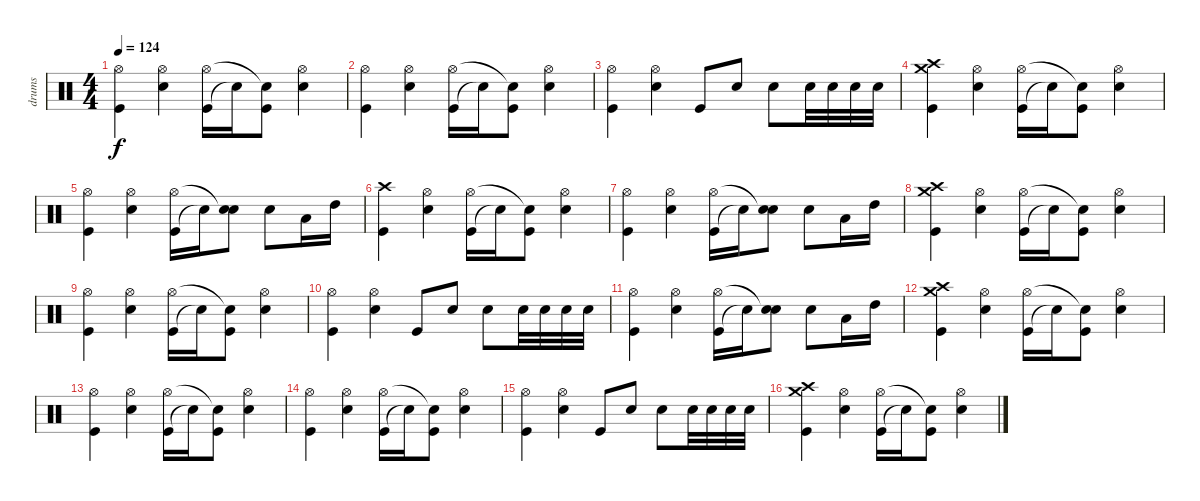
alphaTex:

\track ("drums" "drums") {instrument percussion}
\staff {score}
\articulation defaults
\ts (4 4)
\tempo 124
\clef neutral
\ks c
("Kick (hit)" "Hi-Hat (open)").4{dy f} ("Snare (hit) 2" "Hi-Hat (open)").4 ("Kick (hit)" "Hi-Hat (open)").16 "Snare (hit)"{t}.16 ("Kick (hit)" "Snare (hit)"{t}).8 ("Snare (hit) 2" "Hi-Hat (open)").4 |
("Kick (hit)" "Hi-Hat (open)").4 ("Snare (hit) 2" "Hi-Hat (open)").4 ("Kick (hit)" "Hi-Hat (open)").16 "Snare (hit)"{t}.16 ("Kick (hit)" "Snare (hit)"{t}).8 ("Snare (hit) 2" "Hi-Hat (open)").4 |
("Kick (hit)" "Hi-Hat (open)").4 ("Snare (hit) 2" "Hi-Hat (open)").4 "Kick (hit)".8 "Snare (hit) 2".8 "Snare (hit) 2".8 "Snare (hit) 2".32 "Snare (hit) 2".32 "Snare (hit) 2".32 "Snare (hit) 2".32 |
("Kick (hit)" "Crash medium (hit)" "Crash high (hit)").4 ("Snare (hit) 2" "Hi-Hat (open)").4 ("Kick (hit)" "Hi-Hat (open)").16 "Snare (hit)"{t}.16 ("Kick (hit)" "Snare (hit)"{t}).8 ("Snare (hit) 2" "Hi-Hat (open)").4 |
("Kick (hit)" "Hi-Hat (open)").4 ("Snare (hit) 2" "Hi-Hat (open)").4 ("Kick (hit)" "Hi-Hat (open)").16 "Snare (hit)"{t}.16 ("Snare (hit) 2" "Snare (hit)"{t}).8 "Snare (hit) 2".8 "Low Tom (hit)".16 "High Tom (hit)".16 |
("Kick (hit)" "Crash high (hit)").4 ("Snare (hit) 2" "Hi-Hat (open)").4 ("Kick (hit)" "Hi-Hat (open)").16 "Snare (hit)"{t}.16 ("Kick (hit)" "Snare (hit)"{t}).8 ("Snare (hit) 2" "Hi-Hat (open)").4 |
("Kick (hit)" "Hi-Hat (open)").4 ("Snare (hit) 2" "Hi-Hat (open)").4 ("Kick (hit)" "Hi-Hat (open)").16 "Snare (hit)"{t}.16 ("Snare (hit) 2" "Snare (hit)"{t}).8 "Snare (hit) 2".8 "Low Tom (hit)".16 "High Tom (hit)".16 |
("Kick (hit)" "Crash medium (hit)" "Crash high (hit)").4 ("Snare (hit) 2" "Hi-Hat (open)").4 ("Kick (hit)" "Hi-Hat (open)").16 "Snare (hit)"{t}.16 ("Kick (hit)" "Snare (hit)"{t}).8 ("Snare (hit) 2" "Hi-Hat (open)").4 |
("Kick (hit)" "Hi-Hat (open)").4 ("Snare (hit) 2" "Hi-Hat (open)").4 ("Kick (hit)" "Hi-Hat (open)").16 "Snare (hit)"{t}.16 ("Kick (hit)" "Snare (hit)"{t}).8 ("Snare (hit) 2" "Hi-Hat (open)").4 |
("Kick (hit)" "Hi-Hat (open)").4 ("Snare (hit) 2" "Hi-Hat (open)").4 "Kick (hit)".8 "Snare (hit) 2".8 "Snare (hit) 2".8 "Snare (hit) 2".32 "Snare (hit) 2".32 "Snare (hit) 2".32 "Snare (hit) 2".32 |
("Kick (hit)" "Hi-Hat (open)").4 ("Snare (hit) 2" "Hi-Hat (open)").4 ("Kick (hit)" "Hi-Hat (open)").16 "Snare (hit)"{t}.16 ("Snare (hit) 2" "Snare (hit)"{t}).8 "Snare (hit) 2".8 "Low Tom (hit)".16 "High Tom (hit)".16 |
("Kick (hit)" "Crash medium (hit)" "Crash high (hit)").4 ("Snare (hit) 2" "Hi-Hat (open)").4 ("Kick (hit)" "Hi-Hat (open)").16 "Snare (hit)"{t}.16 ("Kick (hit)" "Snare (hit)"{t}).8 ("Snare (hit) 2" "Hi-Hat (open)").4 |
("Kick (hit)" "Hi-Hat (open)").4 ("Snare (hit) 2" "Hi-Hat (open)").4 ("Kick (hit)" "Hi-Hat (open)").16 "Snare (hit)"{t}.16 ("Kick (hit)" "Snare (hit)"{t}).8 ("Snare (hit) 2" "Hi-Hat (open)").4 |
("Kick (hit)" "Hi-Hat (open)").4 ("Snare (hit) 2" "Hi-Hat (open)").4 ("Kick (hit)" "Hi-Hat (open)").16 "Snare (hit)"{t}.16 ("Kick (hit)" "Snare (hit)"{t}).8 ("Snare (hit) 2" "Hi-Hat (open)").4 |
("Kick (hit)" "Hi-Hat (open)").4 ("Snare (hit) 2" "Hi-Hat (open)").4 "Kick (hit)".8 "Snare (hit) 2".8 "Snare (hit) 2".8 "Snare (hit) 2".32 "Snare (hit) 2".32 "Snare (hit) 2".32 "Snare (hit) 2".32 |
("Kick (hit)" "Crash medium (hit)" "Crash high (hit)").4 ("Snare (hit) 2" "Hi-Hat (open)").4 ("Kick (hit)" "Hi-Hat (open)").16 "Snare (hit)"{t}.16 ("Kick (hit)" "Snare (hit)"{t}).8 ("Snare (hit) 2" "Hi-Hat (open)").4
